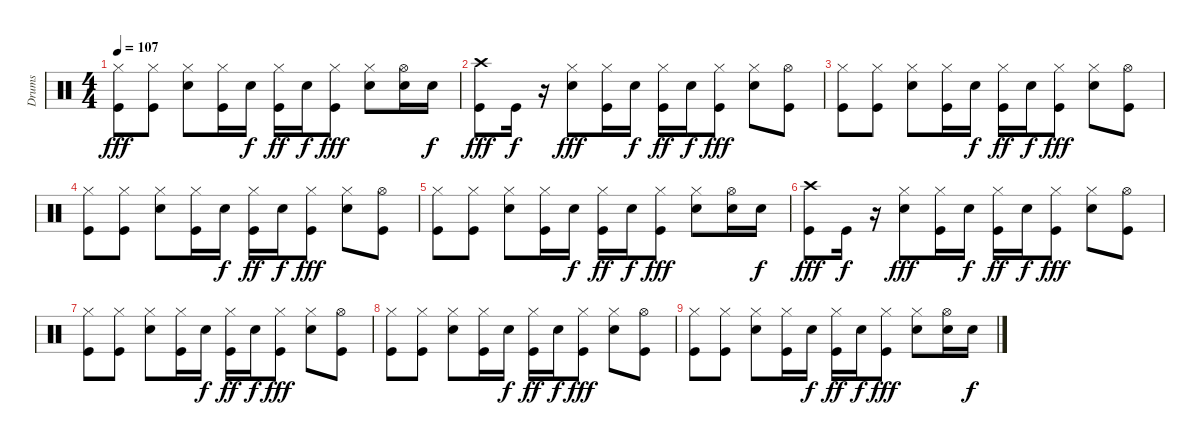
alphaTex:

\track ("Drums" "Drums") {instrument percussion}
\staff {score}
\articulation defaults
\ts (4 4)
\tempo 107
\clef neutral
\ks c
("Kick (hit)" "Hi-Hat (closed)").8{dy fff} ("Kick (hit)" "Hi-Hat (closed)").8 ("Electric Snare (hit)" "Hi-Hat (closed)").8 ("Kick (hit)" "Hi-Hat (closed)").16 "Electric Snare (hit)".16{dy f} ("Kick (hit)" "Hi-Hat (closed)").16{dy ff} "Electric Snare (hit)".16{dy f} ("Kick (hit)" "Hi-Hat (closed)").8{dy fff} ("Electric Snare (hit)" "Hi-Hat (closed)").8 ("Electric Snare (hit)" "Hi-Hat (open)").16 "Electric Snare (hit)".16{dy f} |
("Kick (hit)" "Crash high (hit)").8{dy fff} "Kick (hit)".16{dy f} r.16 ("Electric Snare (hit)" "Hi-Hat (closed)").8{dy fff} ("Kick (hit)" "Hi-Hat (closed)").16 "Electric Snare (hit)".16{dy f} ("Kick (hit)" "Hi-Hat (closed)").16{dy ff} "Electric Snare (hit)".16{dy f} ("Kick (hit)" "Hi-Hat (closed)").8{dy fff} ("Electric Snare (hit)" "Hi-Hat (closed)").8 ("Kick (hit)" "Hi-Hat (open)").8 |
("Kick (hit)" "Hi-Hat (closed)").8 ("Kick (hit)" "Hi-Hat (closed)").8 ("Electric Snare (hit)" "Hi-Hat (closed)").8 ("Kick (hit)" "Hi-Hat (closed)").16 "Electric Snare (hit)".16{dy f} ("Kick (hit)" "Hi-Hat (closed)").16{dy ff} "Electric Snare (hit)".16{dy f} ("Kick (hit)" "Hi-Hat (closed)").8{dy fff} ("Electric Snare (hit)" "Hi-Hat (closed)").8 ("Kick (hit)" "Hi-Hat (open)").8 |
("Kick (hit)" "Hi-Hat (closed)").8 ("Kick (hit)" "Hi-Hat (closed)").8 ("Electric Snare (hit)" "Hi-Hat (closed)").8 ("Kick (hit)" "Hi-Hat (closed)").16 "Electric Snare (hit)".16{dy f} ("Kick (hit)" "Hi-Hat (closed)").16{dy ff} "Electric Snare (hit)".16{dy f} ("Kick (hit)" "Hi-Hat (closed)").8{dy fff} ("Electric Snare (hit)" "Hi-Hat (closed)").8 ("Kick (hit)" "Hi-Hat (open)").8 |
("Kick (hit)" "Hi-Hat (closed)").8 ("Kick (hit)" "Hi-Hat (closed)").8 ("Electric Snare (hit)" "Hi-Hat (closed)").8 ("Kick (hit)" "Hi-Hat (closed)").16 "Electric Snare (hit)".16{dy f} ("Kick (hit)" "Hi-Hat (closed)").16{dy ff} "Electric Snare (hit)".16{dy f} ("Kick (hit)" "Hi-Hat (closed)").8{dy fff} ("Electric Snare (hit)" "Hi-Hat (closed)").8 ("Electric Snare (hit)" "Hi-Hat (open)").16 "Electric Snare (hit)".16{dy f} |
("Kick (hit)" "Crash high (hit)").8{dy fff} "Kick (hit)".16{dy f} r.16 ("Electric Snare (hit)" "Hi-Hat (closed)").8{dy fff} ("Kick (hit)" "Hi-Hat (closed)").16 "Electric Snare (hit)".16{dy f} ("Kick (hit)" "Hi-Hat (closed)").16{dy ff} "Electric Snare (hit)".16{dy f} ("Kick (hit)" "Hi-Hat (closed)").8{dy fff} ("Electric Snare (hit)" "Hi-Hat (closed)").8 ("Kick (hit)" "Hi-Hat (open)").8 |
("Kick (hit)" "Hi-Hat (closed)").8 ("Kick (hit)" "Hi-Hat (closed)").8 ("Electric Snare (hit)" "Hi-Hat (closed)").8 ("Kick (hit)" "Hi-Hat (closed)").16 "Electric Snare (hit)".16{dy f} ("Kick (hit)" "Hi-Hat (closed)").16{dy ff} "Electric Snare (hit)".16{dy f} ("Kick (hit)" "Hi-Hat (closed)").8{dy fff} ("Electric Snare (hit)" "Hi-Hat (closed)").8 ("Kick (hit)" "Hi-Hat (open)").8 |
("Kick (hit)" "Hi-Hat (closed)").8 ("Kick (hit)" "Hi-Hat (closed)").8 ("Electric Snare (hit)" "Hi-Hat (closed)").8 ("Kick (hit)" "Hi-Hat (closed)").16 "Electric Snare (hit)".16{dy f} ("Kick (hit)" "Hi-Hat (closed)").16{dy ff} "Electric Snare (hit)".16{dy f} ("Kick (hit)" "Hi-Hat (closed)").8{dy fff} ("Electric Snare (hit)" "Hi-Hat (closed)").8 ("Kick (hit)" "Hi-Hat (open)").8 |
("Kick (hit)" "Hi-Hat (closed)").8 ("Kick (hit)" "Hi-Hat (closed)").8 ("Electric Snare (hit)" "Hi-Hat (closed)").8 ("Kick (hit)" "Hi-Hat (closed)").16 "Electric Snare (hit)".16{dy f} ("Kick (hit)" "Hi-Hat (closed)").16{dy ff} "Electric Snare (hit)".16{dy f} ("Kick (hit)" "Hi-Hat (closed)").8{dy fff} ("Electric Snare (hit)" "Hi-Hat (closed)").8 ("Electric Snare (hit)" "Hi-Hat (open)").16 "Electric Snare (hit)".16{dy f}
